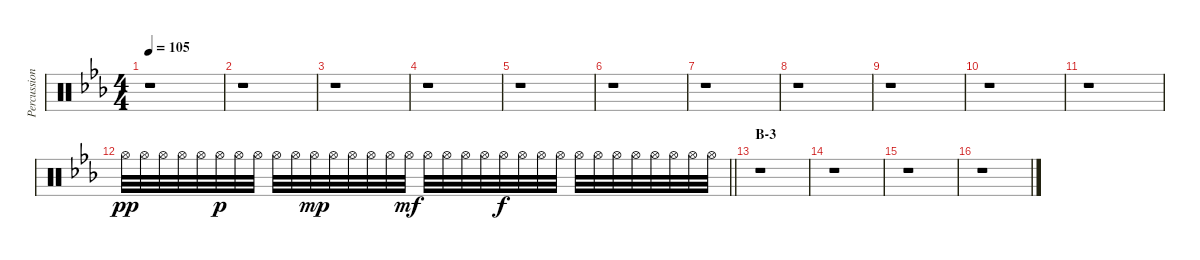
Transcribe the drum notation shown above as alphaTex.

\track ("Percussion" "Percussion") {instrument percussion}
\staff {score}
\articulation defaults
\ts (4 4)
\tempo 105
\clef neutral
\ks eb
r.1{dy f} |
r.1 |
r.1 |
r.1 |
r.1 |
r.1 |
r.1 |
r.1 |
r.1 |
r.1 |
r.1 |
\barLineRight lightlight "Hi-Hat (open)".32{dy pp} "Hi-Hat (open)".32 "Hi-Hat (open)".32 "Hi-Hat (open)".32 "Hi-Hat (open)".32 "Hi-Hat (open)".32{dy p} "Hi-Hat (open)".32 "Hi-Hat (open)".32 "Hi-Hat (open)".32 "Hi-Hat (open)".32 "Hi-Hat (open)".32{dy mp} "Hi-Hat (open)".32 "Hi-Hat (open)".32 "Hi-Hat (open)".32 "Hi-Hat (open)".32 "Hi-Hat (open)".32{dy mf} "Hi-Hat (open)".32 "Hi-Hat (open)".32 "Hi-Hat (open)".32 "Hi-Hat (open)".32 "Hi-Hat (open)".32{dy f} "Hi-Hat (open)".32 "Hi-Hat (open)".32 "Hi-Hat (open)".32 "Hi-Hat (open)".32 "Hi-Hat (open)".32 "Hi-Hat (open)".32 "Hi-Hat (open)".32 "Hi-Hat (open)".32 "Hi-Hat (open)".32 "Hi-Hat (open)".32 "Hi-Hat (open)".32
|
\section ("" "B-3")
r.1 |
r.1 |
r.1 |
r.1
